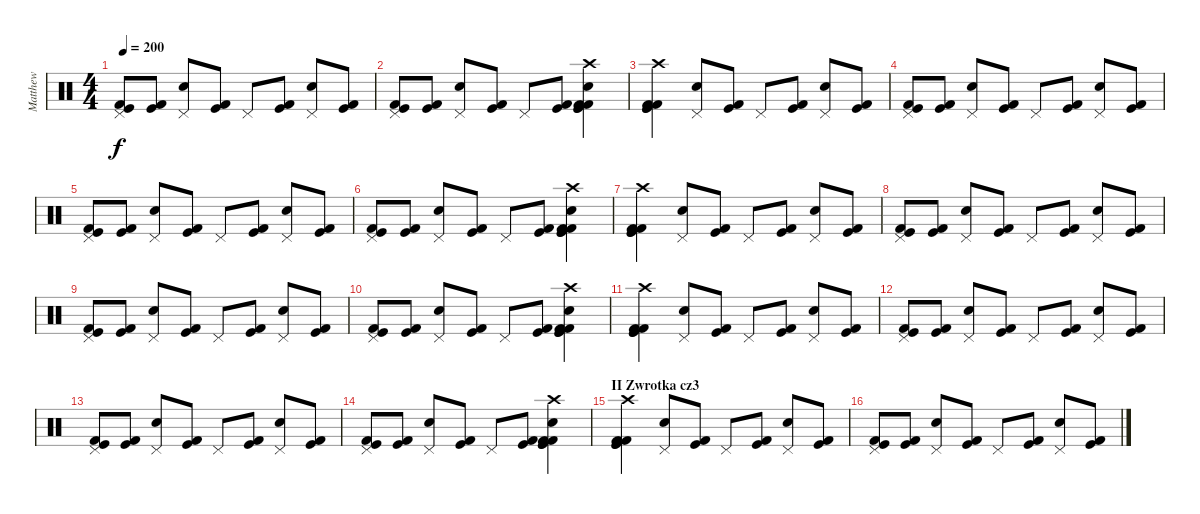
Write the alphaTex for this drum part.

\track ("Matthew" "Matthew") {instrument percussion}
\staff {score}
\articulation defaults
\ts (4 4)
\tempo 200
\clef neutral
\ks c
("Kick (hit) 2" "Kick (hit)" "Pedal Hi-Hat (hit)").8{dy f} ("Kick (hit) 2" "Kick (hit)").8 ("Snare (hit) 2" "Pedal Hi-Hat (hit)").8 ("Kick (hit) 2" "Kick (hit)").8 "Pedal Hi-Hat (hit)".8 ("Kick (hit) 2" "Kick (hit)").8 ("Pedal Hi-Hat (hit)" "Snare (hit) 2").8 ("Kick (hit) 2" "Kick (hit)").8 |
("Kick (hit) 2" "Kick (hit)" "Pedal Hi-Hat (hit)").8 ("Kick (hit) 2" "Kick (hit)").8 ("Snare (hit) 2" "Pedal Hi-Hat (hit)").8 ("Kick (hit) 2" "Kick (hit)").8 "Pedal Hi-Hat (hit)".8 ("Kick (hit) 2" "Kick (hit)").8 ("Kick (hit)" "Snare (hit) 2" "Crash high (hit)" "Kick (hit) 2" "Kick (hit)" "Kick (hit) 2").4 |
("Kick (hit) 2" "Kick (hit)" "Kick (hit)" "Kick (hit) 2" "Crash high (hit)").4 ("Pedal Hi-Hat (hit)" "Snare (hit) 2").8 ("Kick (hit)" "Kick (hit) 2").8 "Pedal Hi-Hat (hit)".8 ("Kick (hit)" "Kick (hit) 2").8 ("Snare (hit) 2" "Pedal Hi-Hat (hit)").8 ("Kick (hit)" "Kick (hit) 2").8 |
("Kick (hit) 2" "Kick (hit)" "Pedal Hi-Hat (hit)").8 ("Kick (hit) 2" "Kick (hit)").8 ("Snare (hit) 2" "Pedal Hi-Hat (hit)").8 ("Kick (hit) 2" "Kick (hit)").8 "Pedal Hi-Hat (hit)".8 ("Kick (hit) 2" "Kick (hit)").8 ("Pedal Hi-Hat (hit)" "Snare (hit) 2").8 ("Kick (hit) 2" "Kick (hit)").8 |
("Kick (hit) 2" "Kick (hit)" "Pedal Hi-Hat (hit)").8 ("Kick (hit) 2" "Kick (hit)").8 ("Snare (hit) 2" "Pedal Hi-Hat (hit)").8 ("Kick (hit) 2" "Kick (hit)").8 "Pedal Hi-Hat (hit)".8 ("Kick (hit) 2" "Kick (hit)").8 ("Pedal Hi-Hat (hit)" "Snare (hit) 2").8 ("Kick (hit) 2" "Kick (hit)").8 |
("Kick (hit) 2" "Kick (hit)" "Pedal Hi-Hat (hit)").8 ("Kick (hit) 2" "Kick (hit)").8 ("Snare (hit) 2" "Pedal Hi-Hat (hit)").8 ("Kick (hit) 2" "Kick (hit)").8 "Pedal Hi-Hat (hit)".8 ("Kick (hit) 2" "Kick (hit)").8 ("Kick (hit)" "Snare (hit) 2" "Crash high (hit)" "Kick (hit) 2" "Kick (hit)" "Kick (hit) 2").4 |
("Kick (hit) 2" "Kick (hit)" "Kick (hit)" "Kick (hit) 2" "Crash high (hit)").4 ("Pedal Hi-Hat (hit)" "Snare (hit) 2").8 ("Kick (hit)" "Kick (hit) 2").8 "Pedal Hi-Hat (hit)".8 ("Kick (hit)" "Kick (hit) 2").8 ("Snare (hit) 2" "Pedal Hi-Hat (hit)").8 ("Kick (hit)" "Kick (hit) 2").8 |
("Kick (hit) 2" "Kick (hit)" "Pedal Hi-Hat (hit)").8 ("Kick (hit) 2" "Kick (hit)").8 ("Snare (hit) 2" "Pedal Hi-Hat (hit)").8 ("Kick (hit) 2" "Kick (hit)").8 "Pedal Hi-Hat (hit)".8 ("Kick (hit) 2" "Kick (hit)").8 ("Pedal Hi-Hat (hit)" "Snare (hit) 2").8 ("Kick (hit) 2" "Kick (hit)").8 |
("Kick (hit) 2" "Kick (hit)" "Pedal Hi-Hat (hit)").8 ("Kick (hit) 2" "Kick (hit)").8 ("Snare (hit) 2" "Pedal Hi-Hat (hit)").8 ("Kick (hit) 2" "Kick (hit)").8 "Pedal Hi-Hat (hit)".8 ("Kick (hit) 2" "Kick (hit)").8 ("Pedal Hi-Hat (hit)" "Snare (hit) 2").8 ("Kick (hit) 2" "Kick (hit)").8 |
("Kick (hit) 2" "Kick (hit)" "Pedal Hi-Hat (hit)").8 ("Kick (hit) 2" "Kick (hit)").8 ("Snare (hit) 2" "Pedal Hi-Hat (hit)").8 ("Kick (hit) 2" "Kick (hit)").8 "Pedal Hi-Hat (hit)".8 ("Kick (hit) 2" "Kick (hit)").8 ("Kick (hit)" "Snare (hit) 2" "Crash high (hit)" "Kick (hit) 2" "Kick (hit)" "Kick (hit) 2").4 |
("Kick (hit) 2" "Kick (hit)" "Kick (hit)" "Kick (hit) 2" "Crash high (hit)").4 ("Pedal Hi-Hat (hit)" "Snare (hit) 2").8 ("Kick (hit)" "Kick (hit) 2").8 "Pedal Hi-Hat (hit)".8 ("Kick (hit)" "Kick (hit) 2").8 ("Snare (hit) 2" "Pedal Hi-Hat (hit)").8 ("Kick (hit)" "Kick (hit) 2").8 |
("Kick (hit) 2" "Kick (hit)" "Pedal Hi-Hat (hit)").8 ("Kick (hit) 2" "Kick (hit)").8 ("Snare (hit) 2" "Pedal Hi-Hat (hit)").8 ("Kick (hit) 2" "Kick (hit)").8 "Pedal Hi-Hat (hit)".8 ("Kick (hit) 2" "Kick (hit)").8 ("Pedal Hi-Hat (hit)" "Snare (hit) 2").8 ("Kick (hit) 2" "Kick (hit)").8 |
("Kick (hit) 2" "Kick (hit)" "Pedal Hi-Hat (hit)").8 ("Kick (hit) 2" "Kick (hit)").8 ("Snare (hit) 2" "Pedal Hi-Hat (hit)").8 ("Kick (hit) 2" "Kick (hit)").8 "Pedal Hi-Hat (hit)".8 ("Kick (hit) 2" "Kick (hit)").8 ("Pedal Hi-Hat (hit)" "Snare (hit) 2").8 ("Kick (hit) 2" "Kick (hit)").8 |
("Kick (hit) 2" "Kick (hit)" "Pedal Hi-Hat (hit)").8 ("Kick (hit) 2" "Kick (hit)").8 ("Snare (hit) 2" "Pedal Hi-Hat (hit)").8 ("Kick (hit) 2" "Kick (hit)").8 "Pedal Hi-Hat (hit)".8 ("Kick (hit) 2" "Kick (hit)").8 ("Kick (hit)" "Snare (hit) 2" "Crash high (hit)" "Kick (hit) 2" "Kick (hit)" "Kick (hit) 2").4 |
\section ("" "II Zwrotka cz3")
("Kick (hit) 2" "Kick (hit)" "Kick (hit)" "Kick (hit) 2" "Crash high (hit)").4 ("Pedal Hi-Hat (hit)" "Snare (hit) 2").8 ("Kick (hit)" "Kick (hit) 2").8 "Pedal Hi-Hat (hit)".8 ("Kick (hit)" "Kick (hit) 2").8 ("Snare (hit) 2" "Pedal Hi-Hat (hit)").8 ("Kick (hit)" "Kick (hit) 2").8 |
("Kick (hit) 2" "Kick (hit)" "Pedal Hi-Hat (hit)").8 ("Kick (hit) 2" "Kick (hit)").8 ("Snare (hit) 2" "Pedal Hi-Hat (hit)").8 ("Kick (hit) 2" "Kick (hit)").8 "Pedal Hi-Hat (hit)".8 ("Kick (hit) 2" "Kick (hit)").8 ("Pedal Hi-Hat (hit)" "Snare (hit) 2").8 ("Kick (hit) 2" "Kick (hit)").8
